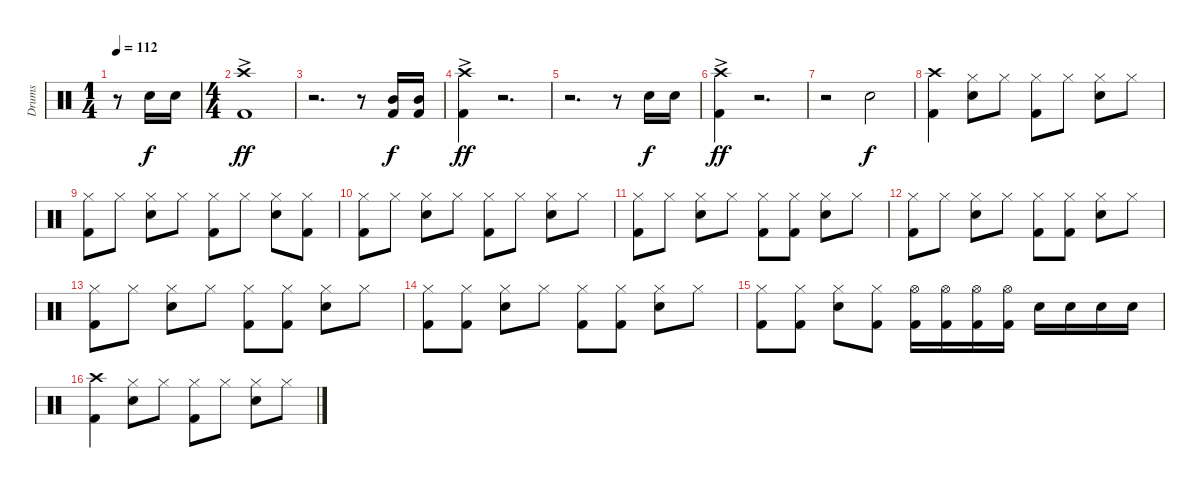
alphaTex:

\track ("Drums" "Drums") {instrument percussion}
\staff {score}
\articulation defaults
\ts (1 4)
\tempo 112
\clef neutral
\ks c
r.8{dy f} "Snare (hit) 2".16 "Snare (hit) 2".16 |
\ts (4 4)
("Kick (hit) 2" "Crash high (hit)"{ac}).1{dy ff} |
r.2{d} r.8 ("Kick (hit) 2" "Mid Tom (hit)").16{dy f} ("Kick (hit) 2" "Mid Tom (hit)").16 |
("Kick (hit) 2" "Crash high (hit)"{ac}).4{dy ff} r.2{d} |
r.2{d} r.8 "Snare (hit) 2".16{dy f} "Snare (hit) 2".16 |
("Kick (hit) 2" "Crash high (hit)"{ac}).4{dy ff} r.2{d} |
r.2 "Snare (hit) 2".2{dy f} |
("Kick (hit) 2" "Crash high (hit)").4 ("Snare (hit) 2" "Hi-Hat (closed)").8 "Hi-Hat (closed)".8 ("Kick (hit) 2" "Hi-Hat (closed)").8 "Hi-Hat (closed)".8 ("Snare (hit) 2" "Hi-Hat (closed)").8 "Hi-Hat (closed)".8 |
("Kick (hit) 2" "Hi-Hat (closed)").8 "Hi-Hat (closed)".8 ("Snare (hit) 2" "Hi-Hat (closed)").8 "Hi-Hat (closed)".8 ("Kick (hit) 2" "Hi-Hat (closed)").8 "Hi-Hat (closed)".8 ("Snare (hit) 2" "Hi-Hat (closed)").8 ("Kick (hit) 2" "Hi-Hat (closed)").8 |
("Kick (hit) 2" "Hi-Hat (closed)").8 "Hi-Hat (closed)".8 ("Snare (hit) 2" "Hi-Hat (closed)").8 "Hi-Hat (closed)".8 ("Kick (hit) 2" "Hi-Hat (closed)").8 "Hi-Hat (closed)".8 ("Snare (hit) 2" "Hi-Hat (closed)").8 "Hi-Hat (closed)".8 |
("Kick (hit) 2" "Hi-Hat (closed)").8 "Hi-Hat (closed)".8 ("Snare (hit) 2" "Hi-Hat (closed)").8 "Hi-Hat (closed)".8 ("Kick (hit) 2" "Hi-Hat (closed)").8 ("Kick (hit) 2" "Hi-Hat (closed)").8 ("Snare (hit) 2" "Hi-Hat (closed)").8 "Hi-Hat (closed)".8 |
("Kick (hit) 2" "Hi-Hat (closed)").8 "Hi-Hat (closed)".8 ("Snare (hit) 2" "Hi-Hat (closed)").8 "Hi-Hat (closed)".8 ("Kick (hit) 2" "Hi-Hat (closed)").8 ("Kick (hit) 2" "Hi-Hat (closed)").8 ("Snare (hit) 2" "Hi-Hat (closed)").8 "Hi-Hat (closed)".8 |
("Kick (hit) 2" "Hi-Hat (closed)").8 "Hi-Hat (closed)".8 ("Snare (hit) 2" "Hi-Hat (closed)").8 "Hi-Hat (closed)".8 ("Kick (hit) 2" "Hi-Hat (closed)").8 ("Kick (hit) 2" "Hi-Hat (closed)").8 ("Snare (hit) 2" "Hi-Hat (closed)").8 "Hi-Hat (closed)".8 |
("Kick (hit) 2" "Hi-Hat (closed)").8 ("Kick (hit) 2" "Hi-Hat (closed)").8 ("Snare (hit) 2" "Hi-Hat (closed)").8 "Hi-Hat (closed)".8 ("Kick (hit) 2" "Hi-Hat (closed)").8 ("Kick (hit) 2" "Hi-Hat (closed)").8 ("Snare (hit) 2" "Hi-Hat (closed)").8 "Hi-Hat (closed)".8 |
("Kick (hit) 2" "Hi-Hat (closed)").8 ("Kick (hit) 2" "Hi-Hat (closed)").8 ("Snare (hit) 2" "Hi-Hat (closed)").8 ("Kick (hit) 2" "Hi-Hat (closed)").8 ("Kick (hit) 2" "Hi-Hat (open)").16 ("Kick (hit) 2" "Hi-Hat (open)").16 ("Kick (hit) 2" "Hi-Hat (open)").16 ("Kick (hit) 2" "Hi-Hat (open)").16 "Snare (hit) 2".16 "Snare (hit) 2".16 "Snare (hit) 2".16 "Snare (hit) 2".16 |
("Kick (hit) 2" "Crash high (hit)").4 ("Snare (hit) 2" "Hi-Hat (closed)").8 "Hi-Hat (closed)".8 ("Kick (hit) 2" "Hi-Hat (closed)").8 "Hi-Hat (closed)".8 ("Snare (hit) 2" "Hi-Hat (closed)").8 "Hi-Hat (closed)".8
